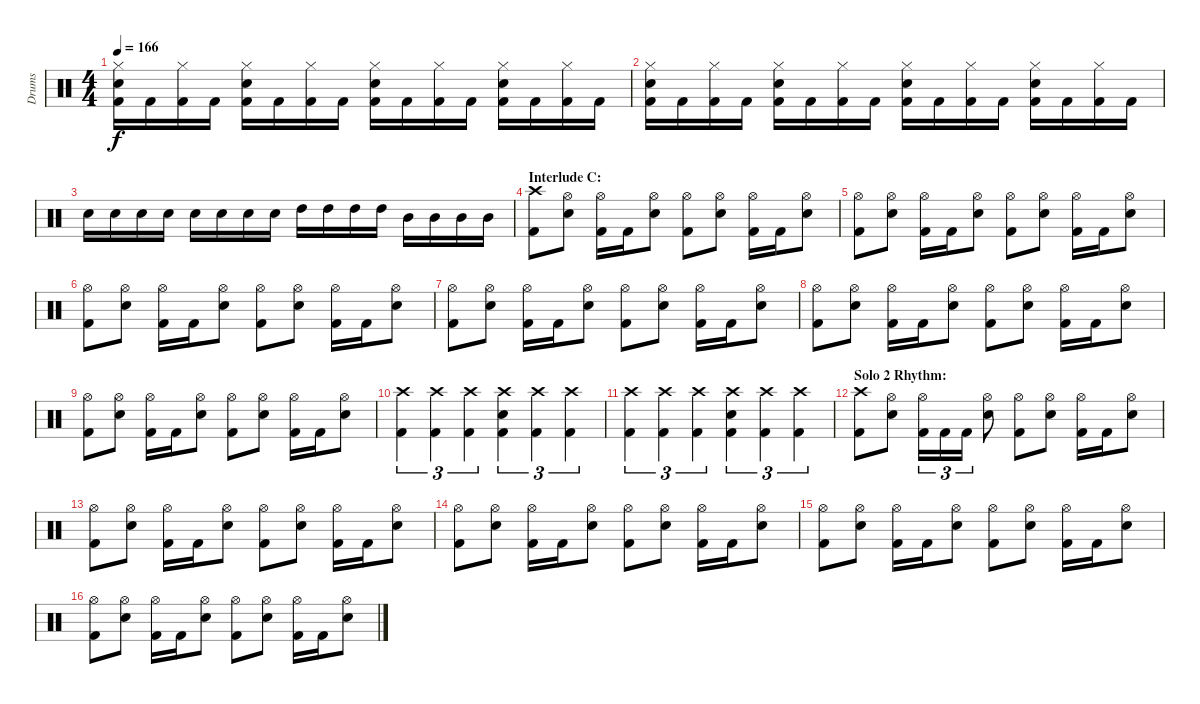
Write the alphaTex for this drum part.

\track ("Drums" "Drums") {instrument percussion}
\staff {score}
\articulation defaults
\ts (4 4)
\tempo 166
\clef neutral
\ks c
("Hi-Hat (closed)" "Electric Snare (hit)" "Kick (hit) 2").16{dy f} "Kick (hit) 2".16 ("Hi-Hat (closed)" "Kick (hit) 2").16 "Kick (hit) 2".16 ("Hi-Hat (closed)" "Electric Snare (hit)" "Kick (hit) 2").16 "Kick (hit) 2".16 ("Hi-Hat (closed)" "Kick (hit) 2").16 "Kick (hit) 2".16 ("Hi-Hat (closed)" "Electric Snare (hit)" "Kick (hit) 2").16 "Kick (hit) 2".16 ("Hi-Hat (closed)" "Kick (hit) 2").16 "Kick (hit) 2".16 ("Hi-Hat (closed)" "Electric Snare (hit)" "Kick (hit) 2").16 "Kick (hit) 2".16 ("Hi-Hat (closed)" "Kick (hit) 2").16 "Kick (hit) 2".16 |
("Hi-Hat (closed)" "Electric Snare (hit)" "Kick (hit) 2").16 "Kick (hit) 2".16 ("Hi-Hat (closed)" "Kick (hit) 2").16 "Kick (hit) 2".16 ("Hi-Hat (closed)" "Electric Snare (hit)" "Kick (hit) 2").16 "Kick (hit) 2".16 ("Hi-Hat (closed)" "Kick (hit) 2").16 "Kick (hit) 2".16 ("Hi-Hat (closed)" "Electric Snare (hit)" "Kick (hit) 2").16 "Kick (hit) 2".16 ("Hi-Hat (closed)" "Kick (hit) 2").16 "Kick (hit) 2".16 ("Hi-Hat (closed)" "Electric Snare (hit)" "Kick (hit) 2").16 "Kick (hit) 2".16 ("Hi-Hat (closed)" "Kick (hit) 2").16 "Kick (hit) 2".16 |
"Electric Snare (hit)".16 "Electric Snare (hit)".16 "Electric Snare (hit)".16 "Electric Snare (hit)".16 "Electric Snare (hit)".16 "Electric Snare (hit)".16 "Electric Snare (hit)".16 "Electric Snare (hit)".16 "High Tom (hit)".16 "High Tom (hit)".16 "High Tom (hit)".16 "High Tom (hit)".16 "Mid Tom (hit)".16 "Mid Tom (hit)".16 "Mid Tom (hit)".16 "Mid Tom (hit)".16 |
\section ("" "Interlude C:")
("Crash high (hit)" "Kick (hit) 2").8 ("Hi-Hat (open)" "Electric Snare (hit)").8 ("Hi-Hat (open)" "Kick (hit) 2").16 "Kick (hit) 2".16 ("Hi-Hat (open)" "Electric Snare (hit)").8 ("Hi-Hat (open)" "Kick (hit) 2").8 ("Hi-Hat (open)" "Electric Snare (hit)").8 ("Hi-Hat (open)" "Kick (hit) 2").16 "Kick (hit) 2".16 ("Hi-Hat (open)" "Electric Snare (hit)").8 |
("Hi-Hat (open)" "Kick (hit) 2").8 ("Hi-Hat (open)" "Electric Snare (hit)").8 ("Hi-Hat (open)" "Kick (hit) 2").16 "Kick (hit) 2".16 ("Hi-Hat (open)" "Electric Snare (hit)").8 ("Hi-Hat (open)" "Kick (hit) 2").8 ("Hi-Hat (open)" "Electric Snare (hit)").8 ("Hi-Hat (open)" "Kick (hit) 2").16 "Kick (hit) 2".16 ("Hi-Hat (open)" "Electric Snare (hit)").8 |
("Hi-Hat (open)" "Kick (hit) 2").8 ("Hi-Hat (open)" "Electric Snare (hit)").8 ("Hi-Hat (open)" "Kick (hit) 2").16 "Kick (hit) 2".16 ("Hi-Hat (open)" "Electric Snare (hit)").8 ("Hi-Hat (open)" "Kick (hit) 2").8 ("Hi-Hat (open)" "Electric Snare (hit)").8 ("Hi-Hat (open)" "Kick (hit) 2").16 "Kick (hit) 2".16 ("Hi-Hat (open)" "Electric Snare (hit)").8 |
("Hi-Hat (open)" "Kick (hit) 2").8 ("Hi-Hat (open)" "Electric Snare (hit)").8 ("Hi-Hat (open)" "Kick (hit) 2").16 "Kick (hit) 2".16 ("Hi-Hat (open)" "Electric Snare (hit)").8 ("Hi-Hat (open)" "Kick (hit) 2").8 ("Hi-Hat (open)" "Electric Snare (hit)").8 ("Hi-Hat (open)" "Kick (hit) 2").16 "Kick (hit) 2".16 ("Hi-Hat (open)" "Electric Snare (hit)").8 |
("Hi-Hat (open)" "Kick (hit) 2").8 ("Hi-Hat (open)" "Electric Snare (hit)").8 ("Hi-Hat (open)" "Kick (hit) 2").16 "Kick (hit) 2".16 ("Hi-Hat (open)" "Electric Snare (hit)").8 ("Hi-Hat (open)" "Kick (hit) 2").8 ("Hi-Hat (open)" "Electric Snare (hit)").8 ("Hi-Hat (open)" "Kick (hit) 2").16 "Kick (hit) 2".16 ("Hi-Hat (open)" "Electric Snare (hit)").8 |
("Hi-Hat (open)" "Kick (hit) 2").8 ("Hi-Hat (open)" "Electric Snare (hit)").8 ("Hi-Hat (open)" "Kick (hit) 2").16 "Kick (hit) 2".16 ("Hi-Hat (open)" "Electric Snare (hit)").8 ("Hi-Hat (open)" "Kick (hit) 2").8 ("Hi-Hat (open)" "Electric Snare (hit)").8 ("Hi-Hat (open)" "Kick (hit) 2").16 "Kick (hit) 2".16 ("Hi-Hat (open)" "Electric Snare (hit)").8 |
("Crash high (hit)" "Kick (hit) 2").4{tu (3 2)} ("Crash high (hit)" "Kick (hit) 2").4{tu (3 2)} ("Crash high (hit)" "Kick (hit) 2").4{tu (3 2)} ("Crash high (hit)" "Electric Snare (hit)" "Kick (hit) 2").4{tu (3 2)} ("Crash high (hit)" "Kick (hit) 2").4{tu (3 2)} ("Crash high (hit)" "Kick (hit) 2").4{tu (3 2)} |
("Crash high (hit)" "Kick (hit) 2").4{tu (3 2)} ("Crash high (hit)" "Kick (hit) 2").4{tu (3 2)} ("Crash high (hit)" "Kick (hit) 2").4{tu (3 2)} ("Crash high (hit)" "Electric Snare (hit)" "Kick (hit) 2").4{tu (3 2)} ("Crash high (hit)" "Kick (hit) 2").4{tu (3 2)} ("Crash high (hit)" "Kick (hit) 2").4{tu (3 2)} |
\section ("" "Solo 2 Rhythm:")
("Crash high (hit)" "Kick (hit) 2").8 ("Hi-Hat (open)" "Electric Snare (hit)").8 ("Hi-Hat (open)" "Kick (hit) 2").16{tu (3 2)} "Kick (hit) 2".16{tu (3 2)} "Kick (hit) 2".16{tu (3 2)} ("Hi-Hat (open)" "Electric Snare (hit)").8 ("Hi-Hat (open)" "Kick (hit) 2").8 ("Hi-Hat (open)" "Electric Snare (hit)").8 ("Hi-Hat (open)" "Kick (hit) 2").16 "Kick (hit) 2".16 ("Hi-Hat (open)" "Electric Snare (hit)").8 |
("Hi-Hat (open)" "Kick (hit) 2").8 ("Hi-Hat (open)" "Electric Snare (hit)").8 ("Hi-Hat (open)" "Kick (hit) 2").16 "Kick (hit) 2".16 ("Hi-Hat (open)" "Electric Snare (hit)").8 ("Hi-Hat (open)" "Kick (hit) 2").8 ("Hi-Hat (open)" "Electric Snare (hit)").8 ("Hi-Hat (open)" "Kick (hit) 2").16 "Kick (hit) 2".16 ("Hi-Hat (open)" "Electric Snare (hit)").8 |
("Hi-Hat (open)" "Kick (hit) 2").8 ("Hi-Hat (open)" "Electric Snare (hit)").8 ("Hi-Hat (open)" "Kick (hit) 2").16 "Kick (hit) 2".16 ("Hi-Hat (open)" "Electric Snare (hit)").8 ("Hi-Hat (open)" "Kick (hit) 2").8 ("Hi-Hat (open)" "Electric Snare (hit)").8 ("Hi-Hat (open)" "Kick (hit) 2").16 "Kick (hit) 2".16 ("Hi-Hat (open)" "Electric Snare (hit)").8 |
("Hi-Hat (open)" "Kick (hit) 2").8 ("Hi-Hat (open)" "Electric Snare (hit)").8 ("Hi-Hat (open)" "Kick (hit) 2").16 "Kick (hit) 2".16 ("Hi-Hat (open)" "Electric Snare (hit)").8 ("Hi-Hat (open)" "Kick (hit) 2").8 ("Hi-Hat (open)" "Electric Snare (hit)").8 ("Hi-Hat (open)" "Kick (hit) 2").16 "Kick (hit) 2".16 ("Hi-Hat (open)" "Electric Snare (hit)").8 |
("Hi-Hat (open)" "Kick (hit) 2").8 ("Hi-Hat (open)" "Electric Snare (hit)").8 ("Hi-Hat (open)" "Kick (hit) 2").16 "Kick (hit) 2".16 ("Hi-Hat (open)" "Electric Snare (hit)").8 ("Hi-Hat (open)" "Kick (hit) 2").8 ("Hi-Hat (open)" "Electric Snare (hit)").8 ("Hi-Hat (open)" "Kick (hit) 2").16 "Kick (hit) 2".16 ("Hi-Hat (open)" "Electric Snare (hit)").8
